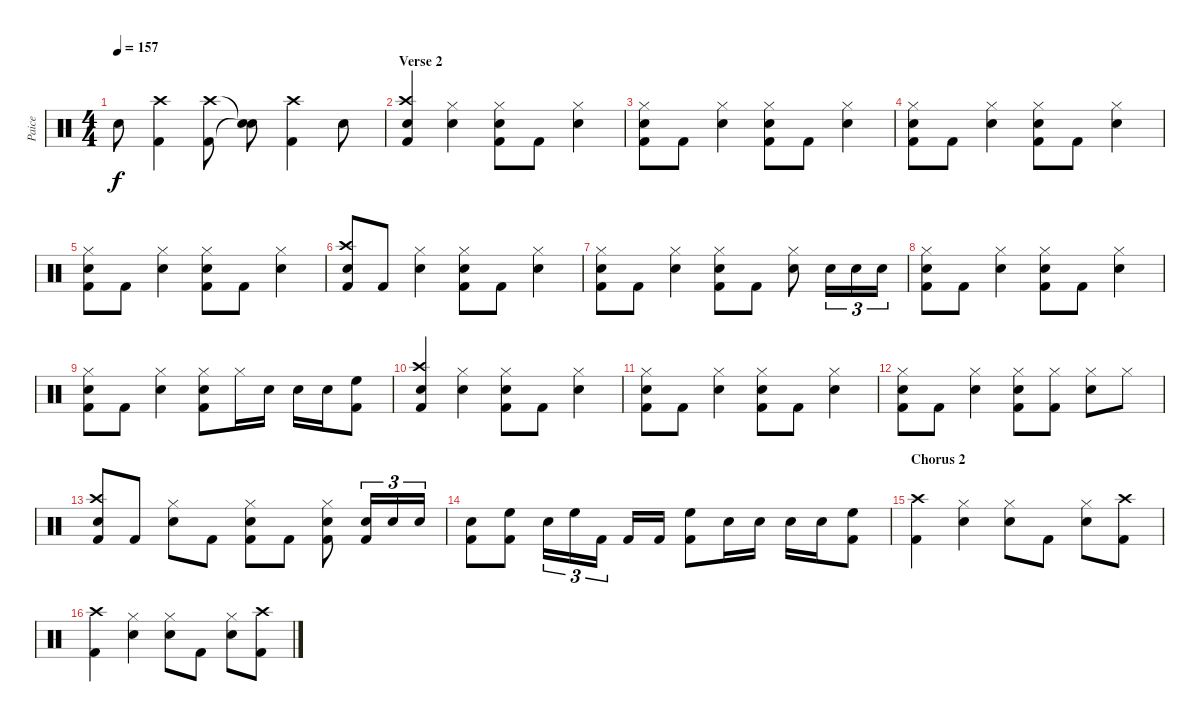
\track ("Paice" "Paice") {instrument percussion}
\staff {score}
\articulation defaults
\ts (4 4)
\tempo 157
\clef neutral
\ks c "Snare (hit) 2".8{dy f}
("Crash high (hit)" "Kick (hit) 2").4 ("Crash high (hit)" "Kick (hit) 2").8 ("Snare (hit)"{t} "Snare (hit)"{t}).8 ("Crash high (hit)" "Kick (hit) 2").4 "Snare (hit) 2".8 |
\section ("" "Verse 2")
("Crash high (hit)" "Snare (hit) 2" "Kick (hit) 2").4 ("Hi-Hat (closed)" "Snare (hit) 2").4 ("Hi-Hat (closed)" "Snare (hit) 2" "Kick (hit) 2").8 "Kick (hit) 2".8 ("Hi-Hat (closed)" "Snare (hit) 2").4 |
("Hi-Hat (closed)" "Snare (hit) 2" "Kick (hit) 2").8 "Kick (hit) 2".8 ("Hi-Hat (closed)" "Snare (hit) 2").4 ("Hi-Hat (closed)" "Snare (hit) 2" "Kick (hit) 2").8 "Kick (hit) 2".8 ("Hi-Hat (closed)" "Snare (hit) 2").4 |
("Hi-Hat (closed)" "Snare (hit) 2" "Kick (hit) 2").8 "Kick (hit) 2".8 ("Hi-Hat (closed)" "Snare (hit) 2").4 ("Hi-Hat (closed)" "Snare (hit) 2" "Kick (hit) 2").8 "Kick (hit) 2".8 ("Hi-Hat (closed)" "Snare (hit) 2").4 |
("Hi-Hat (closed)" "Snare (hit) 2" "Kick (hit) 2").8 "Kick (hit) 2".8 ("Hi-Hat (closed)" "Snare (hit) 2").4 ("Hi-Hat (closed)" "Snare (hit) 2" "Kick (hit) 2").8 "Kick (hit) 2".8 ("Hi-Hat (closed)" "Snare (hit) 2").4 |
("Crash high (hit)" "Snare (hit) 2" "Kick (hit) 2").8 "Kick (hit) 2".8 ("Hi-Hat (closed)" "Snare (hit) 2").4 ("Hi-Hat (closed)" "Snare (hit) 2" "Kick (hit) 2").8 "Kick (hit) 2".8 ("Hi-Hat (closed)" "Snare (hit) 2").4 |
("Hi-Hat (closed)" "Snare (hit) 2" "Kick (hit) 2").8 "Kick (hit) 2".8 ("Hi-Hat (closed)" "Snare (hit) 2").4 ("Hi-Hat (closed)" "Snare (hit) 2" "Kick (hit) 2").8 "Kick (hit) 2".8 ("Hi-Hat (closed)" "Snare (hit) 2").8 "Snare (hit) 2".16{tu (3 2)} "Snare (hit) 2".16{tu (3 2)} "Snare (hit) 2".16{tu (3 2)} |
("Hi-Hat (closed)" "Snare (hit) 2" "Kick (hit) 2").8 "Kick (hit) 2".8 ("Hi-Hat (closed)" "Snare (hit) 2").4 ("Hi-Hat (closed)" "Snare (hit) 2" "Kick (hit) 2").8 "Kick (hit) 2".8 ("Hi-Hat (closed)" "Snare (hit) 2").4 |
("Hi-Hat (closed)" "Snare (hit) 2" "Kick (hit) 2").8 "Kick (hit) 2".8 ("Hi-Hat (closed)" "Snare (hit) 2").4 ("Hi-Hat (closed)" "Snare (hit) 2" "Kick (hit) 2").8 "Hi-Hat (closed)".16 "Snare (hit) 2".16 "Snare (hit) 2".16 "Snare (hit) 2".16 ("High Floor Tom (hit)" "Kick (hit) 2").8 |
("Crash high (hit)" "Snare (hit) 2" "Kick (hit) 2").4 ("Hi-Hat (closed)" "Snare (hit) 2").4 ("Hi-Hat (closed)" "Snare (hit) 2" "Kick (hit) 2").8 "Kick (hit) 2".8 ("Hi-Hat (closed)" "Snare (hit) 2").4 |
("Hi-Hat (closed)" "Snare (hit) 2" "Kick (hit) 2").8 "Kick (hit) 2".8 ("Hi-Hat (closed)" "Snare (hit) 2").4 ("Hi-Hat (closed)" "Snare (hit) 2" "Kick (hit) 2").8 "Kick (hit) 2".8 ("Hi-Hat (closed)" "Snare (hit) 2").4 |
("Hi-Hat (closed)" "Snare (hit) 2" "Kick (hit) 2").8 "Kick (hit) 2".8 ("Hi-Hat (closed)" "Snare (hit) 2").4 ("Hi-Hat (closed)" "Snare (hit) 2" "Kick (hit) 2").8 ("Hi-Hat (closed)" "Kick (hit) 2").8 ("Hi-Hat (closed)" "Snare (hit) 2").8 "Hi-Hat (closed)".8 |
("Crash high (hit)" "Snare (hit) 2" "Kick (hit) 2").8 "Kick (hit) 2".8 ("Hi-Hat (closed)" "Snare (hit) 2").8 "Kick (hit) 2".8 ("Hi-Hat (closed)" "Snare (hit) 2" "Kick (hit) 2").8 "Kick (hit) 2".8 ("Hi-Hat (closed)" "Snare (hit) 2" "Kick (hit) 2").8 ("Snare (hit) 2" "Kick (hit) 2").16{tu (3 2)} "Snare (hit) 2".16{tu (3 2)} "Snare (hit) 2".16{tu (3 2)} |
("Snare (hit) 2" "Kick (hit) 2").8 ("High Floor Tom (hit)" "Kick (hit) 2").8 "Snare (hit) 2".16{tu (3 2)} "High Floor Tom (hit)".16{tu (3 2)} "Kick (hit) 2".16{tu (3 2)} "Kick (hit) 2".16 "Kick (hit) 2".16 ("High Floor Tom (hit)" "Kick (hit) 2").8 "Snare (hit) 2".16 "Snare (hit) 2".16 "Snare (hit) 2".16 "Snare (hit) 2".16 ("High Floor Tom (hit)" "Kick (hit) 2").8 |
\section ("" "Chorus 2")
("Crash high (hit)" "Kick (hit) 2").4 ("Hi-Hat (closed)" "Snare (hit) 2").4 ("Hi-Hat (closed)" "Snare (hit) 2").8 "Kick (hit) 2".8 ("Hi-Hat (closed)" "Snare (hit) 2").8 ("Crash high (hit)" "Kick (hit) 2").8 |
("Crash high (hit)" "Kick (hit) 2").4 ("Hi-Hat (closed)" "Snare (hit) 2").4 ("Hi-Hat (closed)" "Snare (hit) 2").8 "Kick (hit) 2".8 ("Hi-Hat (closed)" "Snare (hit) 2").8 ("Crash high (hit)" "Kick (hit) 2").8
